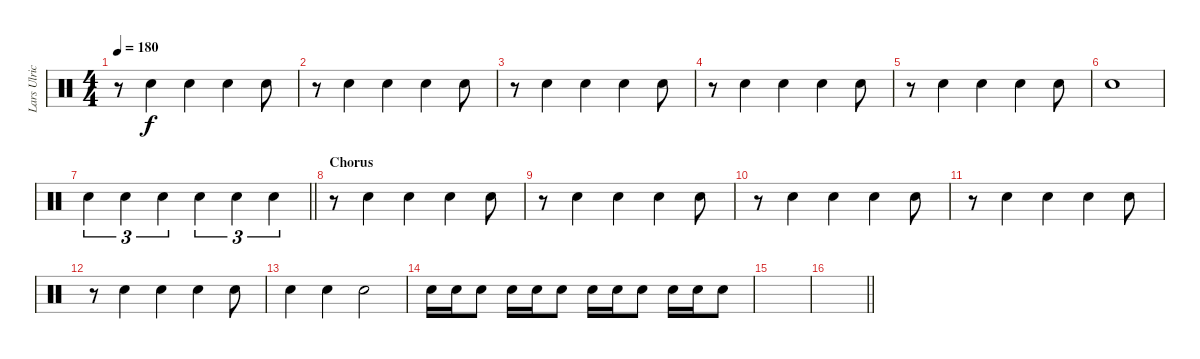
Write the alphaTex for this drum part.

\track ("Lars Ulrich" "Lars Ulric") {instrument percussion}
\staff {score}
\articulation defaults
\ts (4 4)
\tempo 180
\clef neutral
\ks c
r.8{dy f} "Snare (hit) 2".4 "Snare (hit) 2".4 "Snare (hit) 2".4 "Snare (hit) 2".8 |
r.8 "Snare (hit) 2".4 "Snare (hit) 2".4 "Snare (hit) 2".4 "Snare (hit) 2".8 |
r.8 "Snare (hit) 2".4 "Snare (hit) 2".4 "Snare (hit) 2".4 "Snare (hit) 2".8 |
r.8 "Snare (hit) 2".4 "Snare (hit) 2".4 "Snare (hit) 2".4 "Snare (hit) 2".8 |
r.8 "Snare (hit) 2".4 "Snare (hit) 2".4 "Snare (hit) 2".4 "Snare (hit) 2".8 |
"Snare (hit) 2".1 |
\barLineRight lightlight "Snare (hit) 2".4{tu (3 2)} "Snare (hit) 2".4{tu (3 2)} "Snare (hit) 2".4{tu (3 2)} "Snare (hit) 2".4{tu (3 2)} "Snare (hit) 2".4{tu (3 2)} "Snare (hit) 2".4{tu (3 2)}
|
\section ("" "Chorus")
r.8 "Snare (hit) 2".4 "Snare (hit) 2".4 "Snare (hit) 2".4 "Snare (hit) 2".8 |
r.8 "Snare (hit) 2".4 "Snare (hit) 2".4 "Snare (hit) 2".4 "Snare (hit) 2".8 |
r.8 "Snare (hit) 2".4 "Snare (hit) 2".4 "Snare (hit) 2".4 "Snare (hit) 2".8 |
r.8 "Snare (hit) 2".4 "Snare (hit) 2".4 "Snare (hit) 2".4 "Snare (hit) 2".8 |
r.8 "Snare (hit) 2".4 "Snare (hit) 2".4 "Snare (hit) 2".4 "Snare (hit) 2".8 |
"Snare (hit) 2".4 "Snare (hit) 2".4 "Snare (hit) 2".2 |
"Snare (hit) 2".16 "Snare (hit) 2".16 "Snare (hit) 2".8 "Snare (hit) 2".16 "Snare (hit) 2".16 "Snare (hit) 2".8 "Snare (hit) 2".16 "Snare (hit) 2".16 "Snare (hit) 2".8 "Snare (hit) 2".16 "Snare (hit) 2".16 "Snare (hit) 2".8 |
|
\barLineRight lightlight
